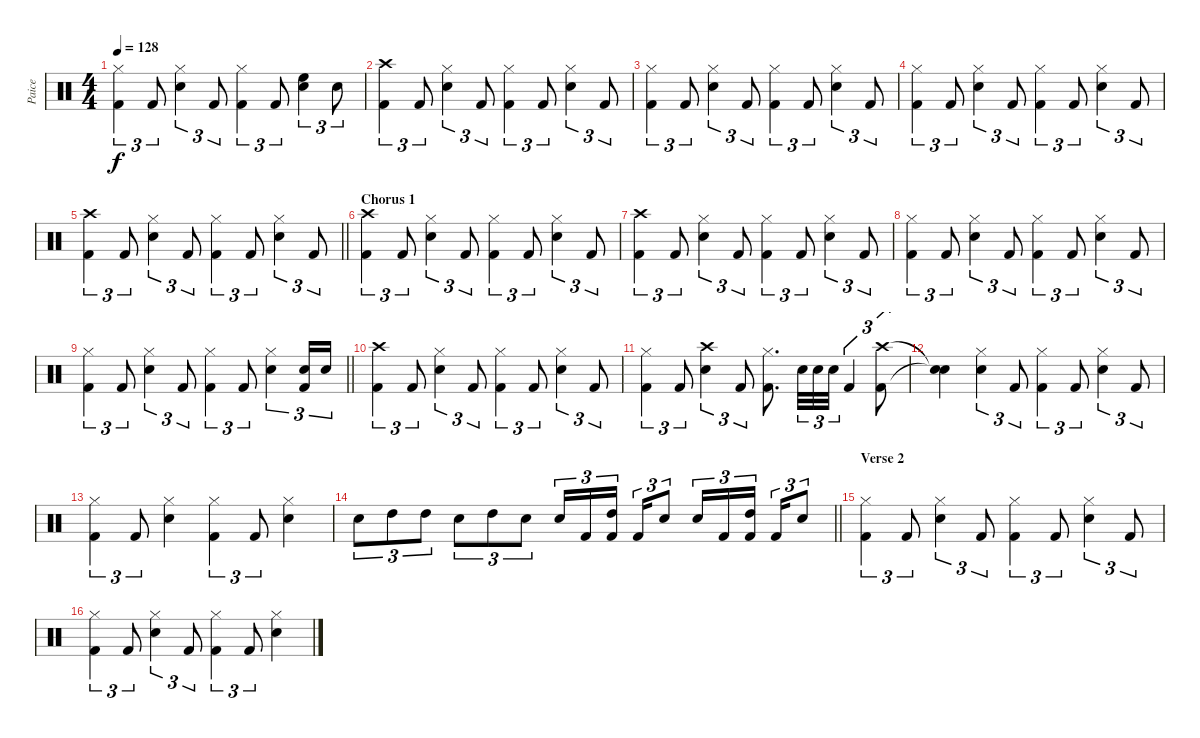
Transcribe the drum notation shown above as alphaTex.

\track ("Paice" "Paice") {instrument percussion}
\staff {score}
\articulation defaults
\ts (4 4)
\tempo 128
\clef neutral
\ks c
("Hi-Hat (closed)" "Kick (hit) 2").4{tu (3 2) dy f} "Kick (hit) 2".8{tu (3 2)} ("Hi-Hat (closed)" "Snare (hit) 2").4{tu (3 2)} "Kick (hit) 2".8{tu (3 2)} ("Hi-Hat (closed)" "Kick (hit) 2").4{tu (3 2)} "Kick (hit) 2".8{tu (3 2)} ("High Floor Tom (hit)" "Snare (hit) 2").4{tu (3 2)} "Snare (hit) 2".8{tu (3 2)} |
("Crash high (hit)" "Kick (hit) 2").4{tu (3 2)} "Kick (hit) 2".8{tu (3 2)} ("Hi-Hat (closed)" "Snare (hit) 2").4{tu (3 2)} "Kick (hit) 2".8{tu (3 2)} ("Hi-Hat (closed)" "Kick (hit) 2").4{tu (3 2)} "Kick (hit) 2".8{tu (3 2)} ("Hi-Hat (closed)" "Snare (hit) 2").4{tu (3 2)} "Kick (hit) 2".8{tu (3 2)} |
("Hi-Hat (closed)" "Kick (hit) 2").4{tu (3 2)} "Kick (hit) 2".8{tu (3 2)} ("Hi-Hat (closed)" "Snare (hit) 2").4{tu (3 2)} "Kick (hit) 2".8{tu (3 2)} ("Hi-Hat (closed)" "Kick (hit) 2").4{tu (3 2)} "Kick (hit) 2".8{tu (3 2)} ("Hi-Hat (closed)" "Snare (hit) 2").4{tu (3 2)} "Kick (hit) 2".8{tu (3 2)} |
("Hi-Hat (closed)" "Kick (hit) 2").4{tu (3 2)} "Kick (hit) 2".8{tu (3 2)} ("Hi-Hat (closed)" "Snare (hit) 2").4{tu (3 2)} "Kick (hit) 2".8{tu (3 2)} ("Hi-Hat (closed)" "Kick (hit) 2").4{tu (3 2)} "Kick (hit) 2".8{tu (3 2)} ("Hi-Hat (closed)" "Snare (hit) 2").4{tu (3 2)} "Kick (hit) 2".8{tu (3 2)} |
\barLineRight lightlight
("Crash high (hit)" "Kick (hit) 2").4{tu (3 2)} "Kick (hit) 2".8{tu (3 2)} ("Hi-Hat (closed)" "Snare (hit) 2").4{tu (3 2)} "Kick (hit) 2".8{tu (3 2)} ("Hi-Hat (closed)" "Kick (hit) 2").4{tu (3 2)} "Kick (hit) 2".8{tu (3 2)} ("Hi-Hat (closed)" "Snare (hit) 2").4{tu (3 2)} "Kick (hit) 2".8{tu (3 2)} |
\section ("" "Chorus 1")
("Crash high (hit)" "Kick (hit) 2").4{tu (3 2)} "Kick (hit) 2".8{tu (3 2)} ("Hi-Hat (closed)" "Snare (hit) 2").4{tu (3 2)} "Kick (hit) 2".8{tu (3 2)} ("Hi-Hat (closed)" "Kick (hit) 2").4{tu (3 2)} "Kick (hit) 2".8{tu (3 2)} ("Hi-Hat (closed)" "Snare (hit) 2").4{tu (3 2)} "Kick (hit) 2".8{tu (3 2)} |
("Crash high (hit)" "Kick (hit) 2").4{tu (3 2)} "Kick (hit) 2".8{tu (3 2)} ("Hi-Hat (closed)" "Snare (hit) 2").4{tu (3 2)} "Kick (hit) 2".8{tu (3 2)} ("Hi-Hat (closed)" "Kick (hit) 2").4{tu (3 2)} "Kick (hit) 2".8{tu (3 2)} ("Hi-Hat (closed)" "Snare (hit) 2").4{tu (3 2)} "Kick (hit) 2".8{tu (3 2)} |
("Hi-Hat (closed)" "Kick (hit) 2").4{tu (3 2)} "Kick (hit) 2".8{tu (3 2)} ("Hi-Hat (closed)" "Snare (hit) 2").4{tu (3 2)} "Kick (hit) 2".8{tu (3 2)} ("Hi-Hat (closed)" "Kick (hit) 2").4{tu (3 2)} "Kick (hit) 2".8{tu (3 2)} ("Hi-Hat (closed)" "Snare (hit) 2").4{tu (3 2)} "Kick (hit) 2".8{tu (3 2)} |
\barLineRight lightlight
("Hi-Hat (closed)" "Kick (hit) 2").4{tu (3 2)} "Kick (hit) 2".8{tu (3 2)} ("Hi-Hat (closed)" "Snare (hit) 2").4{tu (3 2)} "Kick (hit) 2".8{tu (3 2)} ("Hi-Hat (closed)" "Kick (hit) 2").4{tu (3 2)} "Kick (hit) 2".8{tu (3 2)} ("Hi-Hat (closed)" "Snare (hit) 2").4{tu (3 2)} ("Snare (hit) 2" "Kick (hit) 2").16{tu (3 2)} "Snare (hit) 2".16{tu (3 2)} |
("Crash high (hit)" "Kick (hit) 2").4{tu (3 2)} "Kick (hit) 2".8{tu (3 2)} ("Hi-Hat (closed)" "Snare (hit) 2").4{tu (3 2)} "Kick (hit) 2".8{tu (3 2)} ("Hi-Hat (closed)" "Kick (hit) 2").4{tu (3 2)} "Kick (hit) 2".8{tu (3 2)} ("Hi-Hat (closed)" "Snare (hit) 2").4{tu (3 2)} "Kick (hit) 2".8{tu (3 2)} |
("Hi-Hat (closed)" "Kick (hit) 2").4{tu (3 2)} "Kick (hit) 2".8{tu (3 2)} ("Crash high (hit)" "Snare (hit) 2").4{tu (3 2)} "Kick (hit) 2".8{tu (3 2)} ("Hi-Hat (closed)" "Kick (hit) 2").8{d} "Snare (hit) 2".32{tu (3 2)} "Snare (hit) 2".32{tu (3 2)} "Snare (hit) 2".32{tu (3 2)} "Kick (hit) 2".4{tu (3 2)} ("Crash high (hit)" "Kick (hit) 2").8{tu (3 2)} |
("Snare (hit)"{t} "Snare (hit)"{t}).4 ("Hi-Hat (closed)" "Snare (hit) 2").4{tu (3 2)} "Kick (hit) 2".8{tu (3 2)} ("Hi-Hat (closed)" "Kick (hit) 2").4{tu (3 2)} "Kick (hit) 2".8{tu (3 2)} ("Hi-Hat (closed)" "Snare (hit) 2").4{tu (3 2)} "Kick (hit) 2".8{tu (3 2)} |
("Hi-Hat (closed)" "Kick (hit) 2").4{tu (3 2)} "Kick (hit) 2".8{tu (3 2)} ("Hi-Hat (closed)" "Snare (hit) 2").4 ("Hi-Hat (closed)" "Kick (hit) 2").4{tu (3 2)} "Kick (hit) 2".8{tu (3 2)} ("Hi-Hat (closed)" "Snare (hit) 2").4 |
\barLineRight lightlight "Snare (hit) 2".8{tu (3 2)} "High Tom (hit)".8{tu (3 2)} "High Tom (hit)".8{tu (3 2)} "Snare (hit) 2".8{tu (3 2)} "High Tom (hit)".8{tu (3 2)} "Snare (hit) 2".8{tu (3 2)} "Snare (hit) 2".16{tu (3 2)} "Kick (hit) 2".16{tu (3 2)}
("High Tom (hit)" "Kick (hit) 2").16{tu (3 2) beam splitsecondary} "Kick (hit) 2".16{tu (3 2)} "Snare (hit) 2".8{tu (3 2)} "Snare (hit) 2".16{tu (3 2)} "Kick (hit) 2".16{tu (3 2)} ("High Tom (hit)" "Kick (hit) 2").16{tu (3 2) beam splitsecondary} "Kick (hit) 2".16{tu (3 2)} "Snare (hit) 2".8{tu (3 2)} |
\section ("" "Verse 2")
("Hi-Hat (closed)" "Kick (hit) 2").4{tu (3 2)} "Kick (hit) 2".8{tu (3 2)} ("Hi-Hat (closed)" "Snare (hit) 2").4{tu (3 2)} "Kick (hit) 2".8{tu (3 2)} ("Hi-Hat (closed)" "Kick (hit) 2").4{tu (3 2)} "Kick (hit) 2".8{tu (3 2)} ("Hi-Hat (closed)" "Snare (hit) 2").4{tu (3 2)} "Kick (hit) 2".8{tu (3 2)} |
("Hi-Hat (closed)" "Kick (hit) 2").4{tu (3 2)} "Kick (hit) 2".8{tu (3 2)} ("Hi-Hat (closed)" "Snare (hit) 2").4{tu (3 2)} "Kick (hit) 2".8{tu (3 2)} ("Hi-Hat (closed)" "Kick (hit) 2").4{tu (3 2)} "Kick (hit) 2".8{tu (3 2)} ("Hi-Hat (closed)" "Snare (hit) 2").4
